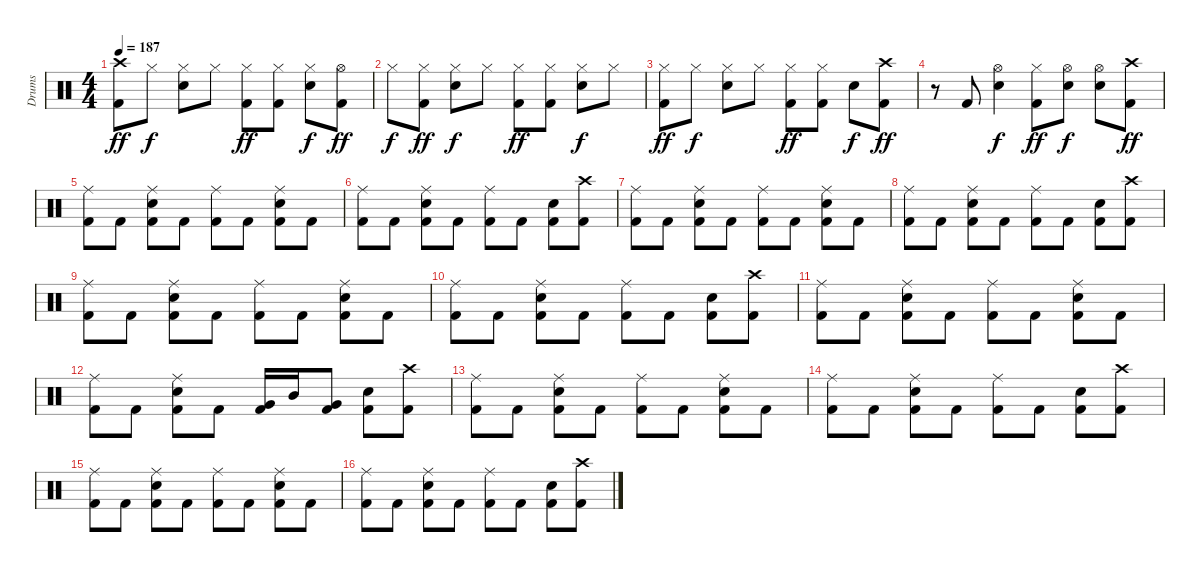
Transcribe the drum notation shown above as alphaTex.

\track ("Drums" "Drums") {instrument percussion}
\staff {score}
\articulation defaults
\ts (4 4)
\tempo 187
\clef neutral
\ks c
("Crash high (hit)" "Kick (hit) 2").8{dy ff} "Hi-Hat (closed)".8{dy f} ("Hi-Hat (closed)" "Electric Snare (hit)").8 "Hi-Hat (closed)".8 ("Hi-Hat (closed)" "Kick (hit) 2").8{dy ff} ("Hi-Hat (closed)" "Kick (hit) 2").8 ("Hi-Hat (closed)" "Electric Snare (hit)").8{dy f} ("Hi-Hat (open)" "Kick (hit) 2").8{dy ff} |
"Hi-Hat (closed)".8{dy f} ("Hi-Hat (closed)" "Kick (hit) 2").8{dy ff} ("Hi-Hat (closed)" "Electric Snare (hit)").8{dy f} "Hi-Hat (closed)".8 ("Hi-Hat (closed)" "Kick (hit) 2").8{dy ff} ("Hi-Hat (closed)" "Kick (hit) 2").8 ("Hi-Hat (closed)" "Electric Snare (hit)").8{dy f} "Hi-Hat (closed)".8 |
("Hi-Hat (closed)" "Kick (hit) 2").8{dy ff} "Hi-Hat (closed)".8{dy f} ("Hi-Hat (closed)" "Electric Snare (hit)").8 "Hi-Hat (closed)".8 ("Hi-Hat (closed)" "Kick (hit) 2").8{dy ff} ("Hi-Hat (closed)" "Kick (hit) 2").8 "Electric Snare (hit)".8{dy f} ("Crash high (hit)" "Kick (hit) 2").8{dy ff} |
r.8 "Kick (hit) 2".8 ("Hi-Hat (open)" "Electric Snare (hit)").4{dy f} ("Hi-Hat (closed)" "Kick (hit) 2").8{dy ff} ("Hi-Hat (open)" "Electric Snare (hit)").8{dy f} ("Hi-Hat (open)" "Electric Snare (hit)").8 ("Crash high (hit)" "Kick (hit) 2").8{dy ff} |
("Ride (middle)" "Kick (hit) 2").8 "Kick (hit) 2".8 ("Ride (middle)" "Electric Snare (hit)" "Kick (hit) 2").8 "Kick (hit) 2".8 ("Ride (middle)" "Kick (hit) 2").8 "Kick (hit) 2".8 ("Ride (middle)" "Electric Snare (hit)" "Kick (hit) 2").8 "Kick (hit) 2".8 |
("Ride (middle)" "Kick (hit) 2").8 "Kick (hit) 2".8 ("Ride (middle)" "Electric Snare (hit)" "Kick (hit) 2").8 "Kick (hit) 2".8 ("Ride (middle)" "Kick (hit) 2").8 "Kick (hit) 2".8 ("Electric Snare (hit)" "Kick (hit) 2").8 ("Crash high (hit)" "Kick (hit) 2").8 |
("Ride (middle)" "Kick (hit) 2").8 "Kick (hit) 2".8 ("Ride (middle)" "Electric Snare (hit)" "Kick (hit) 2").8 "Kick (hit) 2".8 ("Ride (middle)" "Kick (hit) 2").8 "Kick (hit) 2".8 ("Ride (middle)" "Electric Snare (hit)" "Kick (hit) 2").8 "Kick (hit) 2".8 |
("Ride (middle)" "Kick (hit) 2").8 "Kick (hit) 2".8 ("Ride (middle)" "Electric Snare (hit)" "Kick (hit) 2").8 "Kick (hit) 2".8 ("Ride (middle)" "Kick (hit) 2").8 "Kick (hit) 2".8 ("Electric Snare (hit)" "Kick (hit) 2").8 ("Crash high (hit)" "Kick (hit) 2").8 |
("Ride (middle)" "Kick (hit) 2").8 "Kick (hit) 2".8 ("Ride (middle)" "Electric Snare (hit)" "Kick (hit) 2").8 "Kick (hit) 2".8 ("Ride (middle)" "Kick (hit) 2").8 "Kick (hit) 2".8 ("Ride (middle)" "Electric Snare (hit)" "Kick (hit) 2").8 "Kick (hit) 2".8 |
("Ride (middle)" "Kick (hit) 2").8 "Kick (hit) 2".8 ("Ride (middle)" "Electric Snare (hit)" "Kick (hit) 2").8 "Kick (hit) 2".8 ("Ride (middle)" "Kick (hit) 2").8 "Kick (hit) 2".8 ("Electric Snare (hit)" "Kick (hit) 2").8 ("Crash high (hit)" "Kick (hit) 2").8 |
("Ride (middle)" "Kick (hit) 2").8 "Kick (hit) 2".8 ("Ride (middle)" "Electric Snare (hit)" "Kick (hit) 2").8 "Kick (hit) 2".8 ("Ride (middle)" "Kick (hit) 2").8 "Kick (hit) 2".8 ("Ride (middle)" "Electric Snare (hit)" "Kick (hit) 2").8 "Kick (hit) 2".8 |
("Ride (middle)" "Kick (hit) 2").8 "Kick (hit) 2".8 ("Ride (middle)" "Electric Snare (hit)" "Kick (hit) 2").8 "Kick (hit) 2".8 ("Very Low Tom (hit)" "Kick (hit) 2").16 "Mid Tom (hit)".16 ("Very Low Tom (hit)" "Kick (hit) 2").8 ("Electric Snare (hit)" "Kick (hit) 2").8 ("Crash high (hit)" "Kick (hit) 2").8 |
("Ride (middle)" "Kick (hit) 2").8 "Kick (hit) 2".8 ("Ride (middle)" "Electric Snare (hit)" "Kick (hit) 2").8 "Kick (hit) 2".8 ("Ride (middle)" "Kick (hit) 2").8 "Kick (hit) 2".8 ("Ride (middle)" "Electric Snare (hit)" "Kick (hit) 2").8 "Kick (hit) 2".8 |
("Ride (middle)" "Kick (hit) 2").8 "Kick (hit) 2".8 ("Ride (middle)" "Electric Snare (hit)" "Kick (hit) 2").8 "Kick (hit) 2".8 ("Ride (middle)" "Kick (hit) 2").8 "Kick (hit) 2".8 ("Electric Snare (hit)" "Kick (hit) 2").8 ("Crash high (hit)" "Kick (hit) 2").8 |
("Ride (middle)" "Kick (hit) 2").8 "Kick (hit) 2".8 ("Ride (middle)" "Electric Snare (hit)" "Kick (hit) 2").8 "Kick (hit) 2".8 ("Ride (middle)" "Kick (hit) 2").8 "Kick (hit) 2".8 ("Ride (middle)" "Electric Snare (hit)" "Kick (hit) 2").8 "Kick (hit) 2".8 |
("Ride (middle)" "Kick (hit) 2").8 "Kick (hit) 2".8 ("Ride (middle)" "Electric Snare (hit)" "Kick (hit) 2").8 "Kick (hit) 2".8 ("Ride (middle)" "Kick (hit) 2").8 "Kick (hit) 2".8 ("Electric Snare (hit)" "Kick (hit) 2").8 ("Crash high (hit)" "Kick (hit) 2").8
